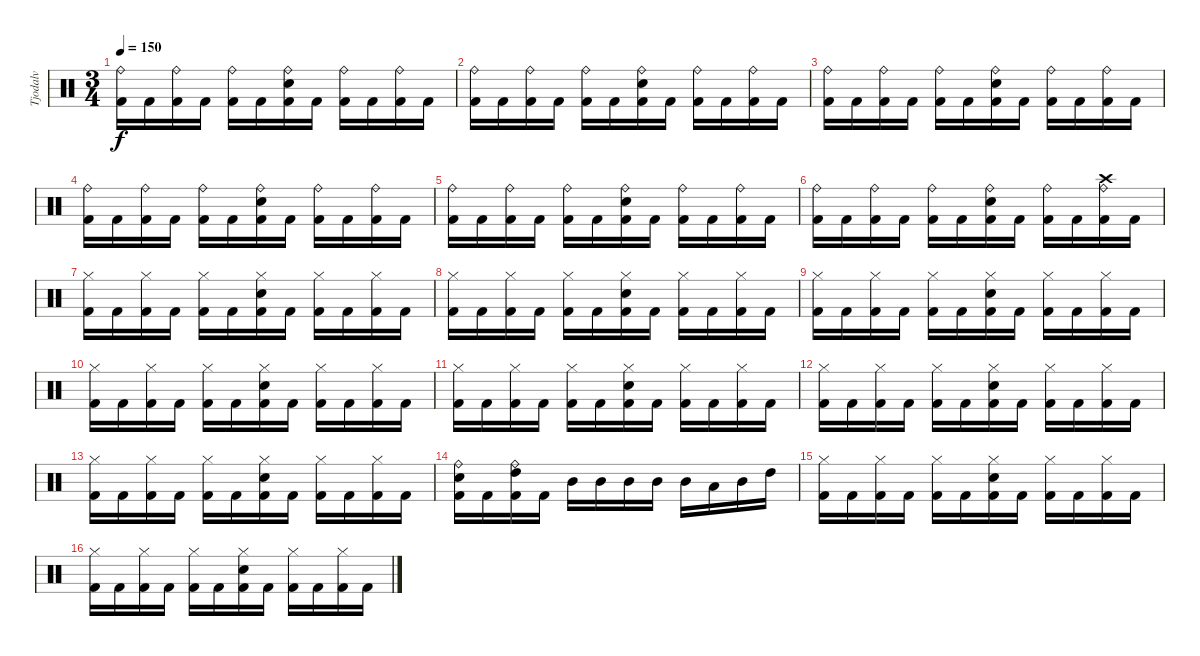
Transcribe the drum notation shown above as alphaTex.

\track ("Tjodalv" "Tjodalv") {instrument percussion}
\staff {score}
\articulation defaults
\ts (3 4)
\tempo 150
\clef neutral
\ks c
("Ride (bell)" "Kick (hit) 2").16{dy f} "Kick (hit) 2".16 ("Ride (bell)" "Kick (hit) 2").16 "Kick (hit) 2".16 ("Ride (bell)" "Kick (hit) 2").16 "Kick (hit) 2".16 ("Ride (bell)" "Snare (hit) 2" "Kick (hit) 2").16 "Kick (hit) 2".16 ("Ride (bell)" "Kick (hit) 2").16 "Kick (hit) 2".16 ("Ride (bell)" "Kick (hit) 2").16 "Kick (hit) 2".16 |
("Ride (bell)" "Kick (hit) 2").16 "Kick (hit) 2".16 ("Ride (bell)" "Kick (hit) 2").16 "Kick (hit) 2".16 ("Ride (bell)" "Kick (hit) 2").16 "Kick (hit) 2".16 ("Ride (bell)" "Snare (hit) 2" "Kick (hit) 2").16 "Kick (hit) 2".16 ("Ride (bell)" "Kick (hit) 2").16 "Kick (hit) 2".16 ("Ride (bell)" "Kick (hit) 2").16 "Kick (hit) 2".16 |
("Ride (bell)" "Kick (hit) 2").16 "Kick (hit) 2".16 ("Ride (bell)" "Kick (hit) 2").16 "Kick (hit) 2".16 ("Ride (bell)" "Kick (hit) 2").16 "Kick (hit) 2".16 ("Ride (bell)" "Snare (hit) 2" "Kick (hit) 2").16 "Kick (hit) 2".16 ("Ride (bell)" "Kick (hit) 2").16 "Kick (hit) 2".16 ("Ride (bell)" "Kick (hit) 2").16 "Kick (hit) 2".16 |
("Ride (bell)" "Kick (hit) 2").16 "Kick (hit) 2".16 ("Ride (bell)" "Kick (hit) 2").16 "Kick (hit) 2".16 ("Ride (bell)" "Kick (hit) 2").16 "Kick (hit) 2".16 ("Ride (bell)" "Snare (hit) 2" "Kick (hit) 2").16 "Kick (hit) 2".16 ("Ride (bell)" "Kick (hit) 2").16 "Kick (hit) 2".16 ("Ride (bell)" "Kick (hit) 2").16 "Kick (hit) 2".16 |
("Ride (bell)" "Kick (hit) 2").16 "Kick (hit) 2".16 ("Ride (bell)" "Kick (hit) 2").16 "Kick (hit) 2".16 ("Ride (bell)" "Kick (hit) 2").16 "Kick (hit) 2".16 ("Ride (bell)" "Snare (hit) 2" "Kick (hit) 2").16 "Kick (hit) 2".16 ("Ride (bell)" "Kick (hit) 2").16 "Kick (hit) 2".16 ("Ride (bell)" "Kick (hit) 2").16 "Kick (hit) 2".16 |
("Ride (bell)" "Kick (hit) 2").16 "Kick (hit) 2".16 ("Ride (bell)" "Kick (hit) 2").16 "Kick (hit) 2".16 ("Ride (bell)" "Kick (hit) 2").16 "Kick (hit) 2".16 ("Ride (bell)" "Snare (hit) 2" "Kick (hit) 2").16 "Kick (hit) 2".16 ("Ride (bell)" "Kick (hit) 2").16 "Kick (hit) 2".16 ("Ride (bell)" "Crash high (hit)" "Kick (hit) 2").16 "Kick (hit) 2".16 |
("Hi-Hat (closed)" "Kick (hit) 2").16 "Kick (hit) 2".16 ("Hi-Hat (closed)" "Kick (hit) 2").16 "Kick (hit) 2".16 ("Hi-Hat (closed)" "Kick (hit) 2").16 "Kick (hit) 2".16 ("Hi-Hat (closed)" "Snare (hit) 2" "Kick (hit) 2").16 "Kick (hit) 2".16 ("Hi-Hat (closed)" "Kick (hit) 2").16 "Kick (hit) 2".16 ("Hi-Hat (closed)" "Kick (hit) 2").16 "Kick (hit) 2".16 |
("Hi-Hat (closed)" "Kick (hit) 2").16 "Kick (hit) 2".16 ("Hi-Hat (closed)" "Kick (hit) 2").16 "Kick (hit) 2".16 ("Hi-Hat (closed)" "Kick (hit) 2").16 "Kick (hit) 2".16 ("Hi-Hat (closed)" "Snare (hit) 2" "Kick (hit) 2").16 "Kick (hit) 2".16 ("Hi-Hat (closed)" "Kick (hit) 2").16 "Kick (hit) 2".16 ("Hi-Hat (closed)" "Kick (hit) 2").16 "Kick (hit) 2".16 |
("Hi-Hat (closed)" "Kick (hit) 2").16 "Kick (hit) 2".16 ("Hi-Hat (closed)" "Kick (hit) 2").16 "Kick (hit) 2".16 ("Hi-Hat (closed)" "Kick (hit) 2").16 "Kick (hit) 2".16 ("Hi-Hat (closed)" "Snare (hit) 2" "Kick (hit) 2").16 "Kick (hit) 2".16 ("Hi-Hat (closed)" "Kick (hit) 2").16 "Kick (hit) 2".16 ("Hi-Hat (closed)" "Kick (hit) 2").16 "Kick (hit) 2".16 |
("Hi-Hat (closed)" "Kick (hit) 2").16 "Kick (hit) 2".16 ("Hi-Hat (closed)" "Kick (hit) 2").16 "Kick (hit) 2".16 ("Hi-Hat (closed)" "Kick (hit) 2").16 "Kick (hit) 2".16 ("Hi-Hat (closed)" "Snare (hit) 2" "Kick (hit) 2").16 "Kick (hit) 2".16 ("Hi-Hat (closed)" "Kick (hit) 2").16 "Kick (hit) 2".16 ("Hi-Hat (closed)" "Kick (hit) 2").16 "Kick (hit) 2".16 |
("Hi-Hat (closed)" "Kick (hit) 2").16 "Kick (hit) 2".16 ("Hi-Hat (closed)" "Kick (hit) 2").16 "Kick (hit) 2".16 ("Hi-Hat (closed)" "Kick (hit) 2").16 "Kick (hit) 2".16 ("Hi-Hat (closed)" "Snare (hit) 2" "Kick (hit) 2").16 "Kick (hit) 2".16 ("Hi-Hat (closed)" "Kick (hit) 2").16 "Kick (hit) 2".16 ("Hi-Hat (closed)" "Kick (hit) 2").16 "Kick (hit) 2".16 |
("Hi-Hat (closed)" "Kick (hit) 2").16 "Kick (hit) 2".16 ("Hi-Hat (closed)" "Kick (hit) 2").16 "Kick (hit) 2".16 ("Hi-Hat (closed)" "Kick (hit) 2").16 "Kick (hit) 2".16 ("Hi-Hat (closed)" "Snare (hit) 2" "Kick (hit) 2").16 "Kick (hit) 2".16 ("Hi-Hat (closed)" "Kick (hit) 2").16 "Kick (hit) 2".16 ("Hi-Hat (closed)" "Kick (hit) 2").16 "Kick (hit) 2".16 |
("Hi-Hat (closed)" "Kick (hit) 2").16 "Kick (hit) 2".16 ("Hi-Hat (closed)" "Kick (hit) 2").16 "Kick (hit) 2".16 ("Hi-Hat (closed)" "Kick (hit) 2").16 "Kick (hit) 2".16 ("Hi-Hat (closed)" "Snare (hit) 2" "Kick (hit) 2").16 "Kick (hit) 2".16 ("Hi-Hat (closed)" "Kick (hit) 2").16 "Kick (hit) 2".16 ("Hi-Hat (closed)" "Kick (hit) 2").16 "Kick (hit) 2".16 |
("Ride (bell)" "Snare (hit) 2" "Kick (hit) 2").16 "Kick (hit) 2".16 ("Ride (bell)" "High Tom (hit)" "Kick (hit) 2").16 "Kick (hit) 2".16 "Mid Tom (hit)".16 "Mid Tom (hit)".16 "Mid Tom (hit)".16 "Mid Tom (hit)".16 "Mid Tom (hit)".16 "Low Tom (hit)".16 "Mid Tom (hit)".16 "High Tom (hit)".16 |
("Hi-Hat (closed)" "Kick (hit) 2").16 "Kick (hit) 2".16 ("Hi-Hat (closed)" "Kick (hit) 2").16 "Kick (hit) 2".16 ("Hi-Hat (closed)" "Kick (hit) 2").16 "Kick (hit) 2".16 ("Hi-Hat (closed)" "Snare (hit) 2" "Kick (hit) 2").16 "Kick (hit) 2".16 ("Hi-Hat (closed)" "Kick (hit) 2").16 "Kick (hit) 2".16 ("Hi-Hat (closed)" "Kick (hit) 2").16 "Kick (hit) 2".16 |
("Hi-Hat (closed)" "Kick (hit) 2").16 "Kick (hit) 2".16 ("Hi-Hat (closed)" "Kick (hit) 2").16 "Kick (hit) 2".16 ("Hi-Hat (closed)" "Kick (hit) 2").16 "Kick (hit) 2".16 ("Hi-Hat (closed)" "Snare (hit) 2" "Kick (hit) 2").16 "Kick (hit) 2".16 ("Hi-Hat (closed)" "Kick (hit) 2").16 "Kick (hit) 2".16 ("Hi-Hat (closed)" "Kick (hit) 2").16 "Kick (hit) 2".16
